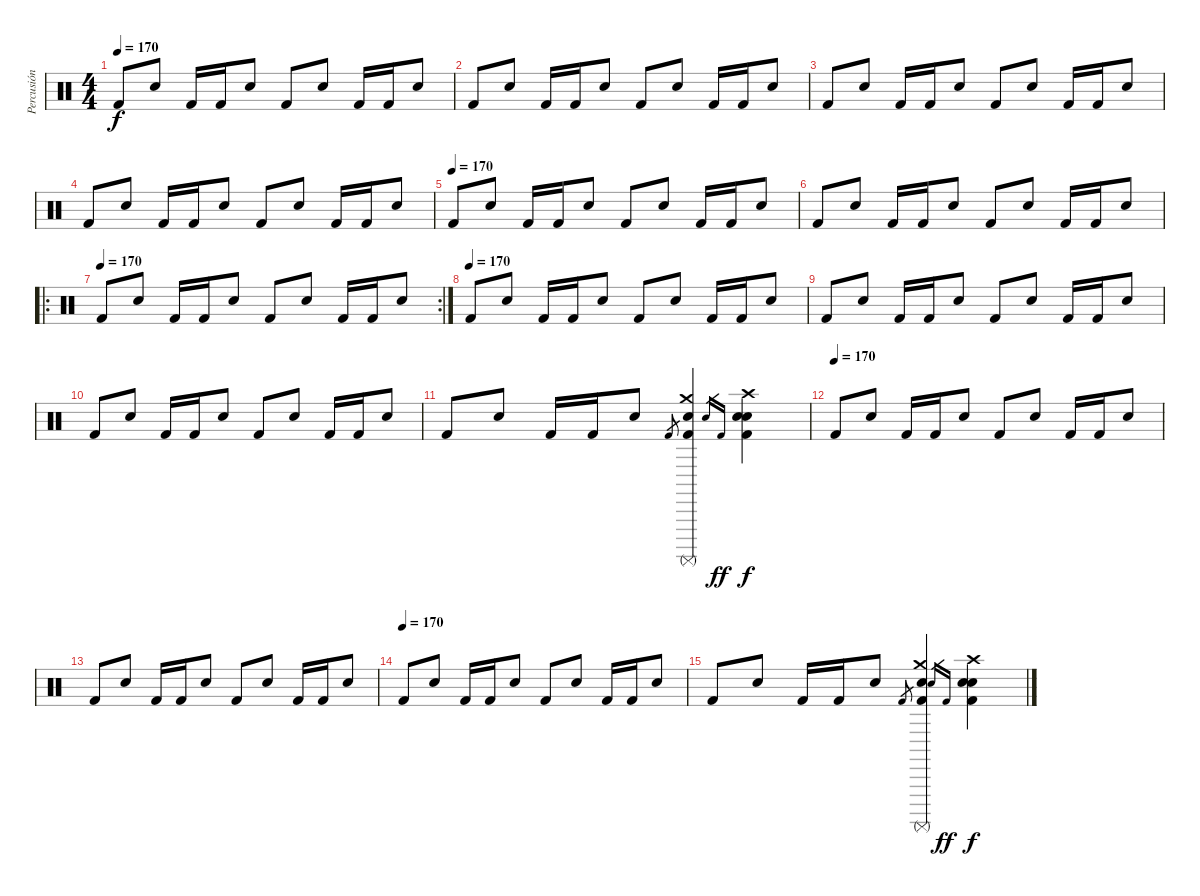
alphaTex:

\track ("Percusión" "Percusión") {instrument percussion}
\staff {score}
\articulation defaults
\ts (4 4)
\tempo 170
\clef neutral
\ks c "Kick (hit) 2".8{dy f} "Snare (hit) 2".8 "Kick (hit) 2".16 "Kick (hit) 2".16 "Snare (hit) 2".8 "Kick (hit) 2".8 "Snare (hit) 2".8 "Kick (hit) 2".16 "Kick (hit) 2".16 "Snare (hit) 2".8
|
"Kick (hit) 2".8 "Snare (hit) 2".8 "Kick (hit) 2".16 "Kick (hit) 2".16 "Snare (hit) 2".8 "Kick (hit) 2".8 "Snare (hit) 2".8 "Kick (hit) 2".16 "Kick (hit) 2".16 "Snare (hit) 2".8 |
"Kick (hit) 2".8 "Snare (hit) 2".8 "Kick (hit) 2".16 "Kick (hit) 2".16 "Snare (hit) 2".8 "Kick (hit) 2".8 "Snare (hit) 2".8 "Kick (hit) 2".16 "Kick (hit) 2".16 "Snare (hit) 2".8 |
"Kick (hit) 2".8 "Snare (hit) 2".8 "Kick (hit) 2".16 "Kick (hit) 2".16 "Snare (hit) 2".8 "Kick (hit) 2".8 "Snare (hit) 2".8 "Kick (hit) 2".16 "Kick (hit) 2".16 "Snare (hit) 2".8 |
\tempo (170)
"Kick (hit) 2".8 "Snare (hit) 2".8 "Kick (hit) 2".16 "Kick (hit) 2".16 "Snare (hit) 2".8 "Kick (hit) 2".8 "Snare (hit) 2".8 "Kick (hit) 2".16 "Kick (hit) 2".16 "Snare (hit) 2".8 |
"Kick (hit) 2".8 "Snare (hit) 2".8 "Kick (hit) 2".16 "Kick (hit) 2".16 "Snare (hit) 2".8 "Kick (hit) 2".8 "Snare (hit) 2".8 "Kick (hit) 2".16 "Kick (hit) 2".16 "Snare (hit) 2".8 |
\ro
\rc 2
\tempo (170)
"Kick (hit) 2".8 "Snare (hit) 2".8 "Kick (hit) 2".16 "Kick (hit) 2".16 "Snare (hit) 2".8 "Kick (hit) 2".8 "Snare (hit) 2".8 "Kick (hit) 2".16 "Kick (hit) 2".16 "Snare (hit) 2".8 |
\tempo (170)
"Kick (hit) 2".8 "Snare (hit) 2".8 "Kick (hit) 2".16 "Kick (hit) 2".16 "Snare (hit) 2".8 "Kick (hit) 2".8 "Snare (hit) 2".8 "Kick (hit) 2".16 "Kick (hit) 2".16 "Snare (hit) 2".8 |
"Kick (hit) 2".8 "Snare (hit) 2".8 "Kick (hit) 2".16 "Kick (hit) 2".16 "Snare (hit) 2".8 "Kick (hit) 2".8 "Snare (hit) 2".8 "Kick (hit) 2".16 "Kick (hit) 2".16 "Snare (hit) 2".8 |
"Kick (hit) 2".8 "Snare (hit) 2".8 "Kick (hit) 2".16 "Kick (hit) 2".16 "Snare (hit) 2".8 "Kick (hit) 2".8 "Snare (hit) 2".8 "Kick (hit) 2".16 "Kick (hit) 2".16 "Snare (hit) 2".8 |
"Kick (hit) 2".8 "Snare (hit) 2".8 "Kick (hit) 2".16 "Kick (hit) 2".16 "Snare (hit) 2".8 "Kick (hit) 2".8{gr} ("Crash medium (hit)" "Surdo (mute)" "Electric Snare (hit)" "Kick (hit) 2").4 "Snare (hit) 2".16{gr} "Kick (hit) 2"{h}.16{gr dy ff} ("Crash high (hit)" "Electric Snare (hit)" "Snare (hit) 2" "Kick (hit) 2").4{dy f} |
\tempo (170)
"Kick (hit) 2".8 "Snare (hit) 2".8 "Kick (hit) 2".16 "Kick (hit) 2".16 "Snare (hit) 2".8 "Kick (hit) 2".8 "Snare (hit) 2".8 "Kick (hit) 2".16 "Kick (hit) 2".16 "Snare (hit) 2".8 |
"Kick (hit) 2".8 "Snare (hit) 2".8 "Kick (hit) 2".16 "Kick (hit) 2".16 "Snare (hit) 2".8 "Kick (hit) 2".8 "Snare (hit) 2".8 "Kick (hit) 2".16 "Kick (hit) 2".16 "Snare (hit) 2".8 |
\tempo (170)
"Kick (hit) 2".8 "Snare (hit) 2".8 "Kick (hit) 2".16 "Kick (hit) 2".16 "Snare (hit) 2".8 "Kick (hit) 2".8 "Snare (hit) 2".8 "Kick (hit) 2".16 "Kick (hit) 2".16 "Snare (hit) 2".8 |
"Kick (hit) 2".8 "Snare (hit) 2".8 "Kick (hit) 2".16 "Kick (hit) 2".16 "Snare (hit) 2".8 "Kick (hit) 2".8{gr} ("Crash medium (hit)" "Surdo (mute)" "Electric Snare (hit)" "Kick (hit) 2").4 "Snare (hit) 2".16{gr} "Kick (hit) 2"{h}.16{gr dy ff} ("Crash high (hit)" "Electric Snare (hit)" "Snare (hit) 2" "Kick (hit) 2").4{dy f}
